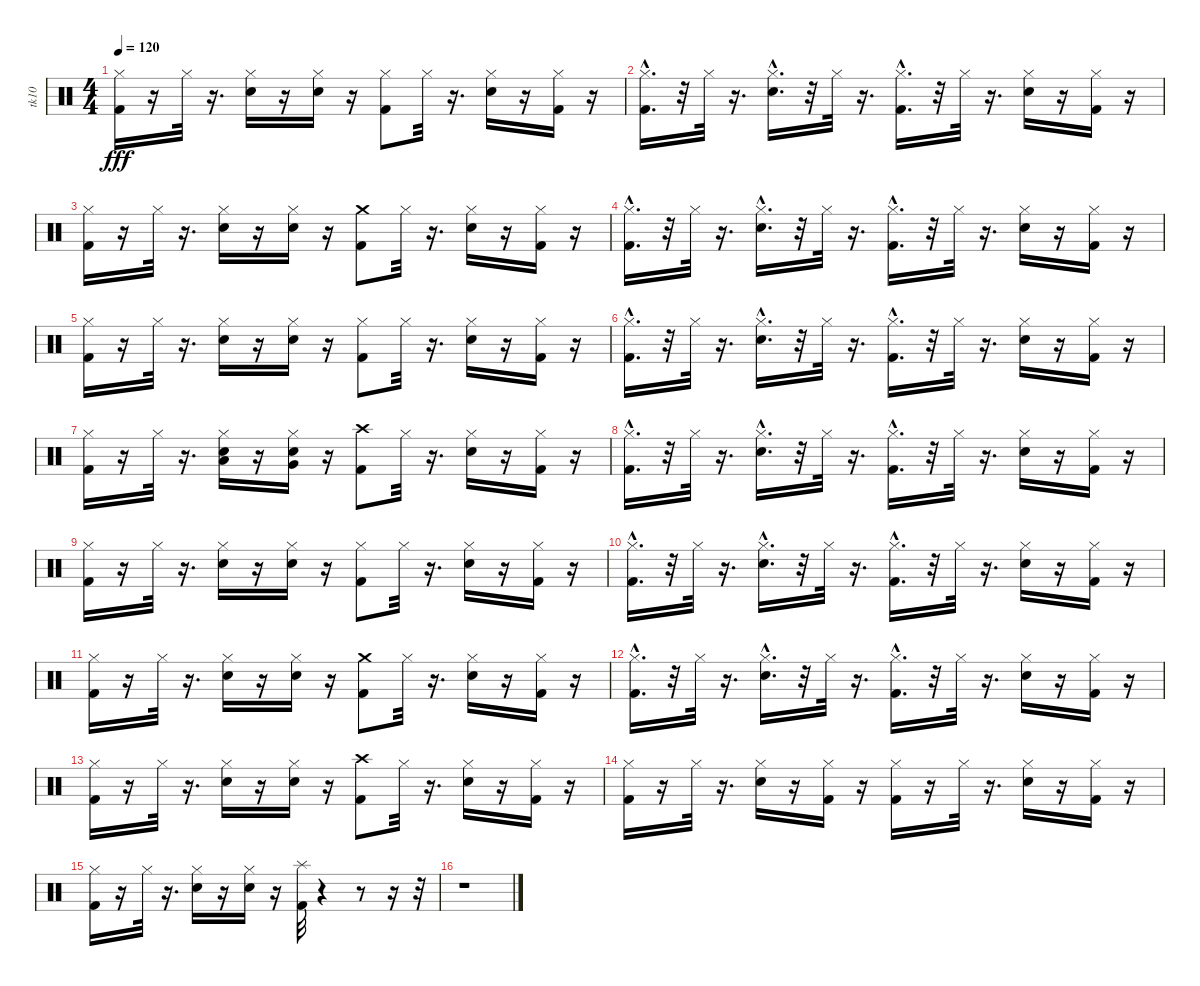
\track ("tk10" "tk10") {instrument percussion}
\staff {score}
\articulation defaults
\ts (4 4)
\tempo 120
\clef neutral
\ks c
("Kick (hit) 2" "Hi-Hat (closed)").16{dy fff} r.16 "Hi-Hat (closed)".32 r.16{d} ("Hi-Hat (closed)" "Snare (hit) 2").16 r.16 ("Hi-Hat (closed)" "Snare (hit) 2").16 r.16 ("Hi-Hat (closed)" "Kick (hit) 2").8 "Hi-Hat (closed)".32 r.16{d} ("Snare (hit) 2" "Hi-Hat (closed)").16 r.16 ("Hi-Hat (closed)" "Kick (hit) 2").16 r.16 |
("Hi-Hat (closed)" "Kick (hit) 2"{hac}).16{d} r.32 "Hi-Hat (closed)".32 r.16{d} ("Snare (hit) 2"{hac} "Hi-Hat (closed)").16{d} r.32 "Hi-Hat (closed)".32 r.16{d} ("Hi-Hat (closed)" "Kick (hit) 2"{hac}).16{d} r.32 "Hi-Hat (closed)".32 r.16{d} ("Snare (hit) 2" "Hi-Hat (closed)").16 r.16 ("Kick (hit) 2" "Hi-Hat (closed)").16 r.16 |
("Hi-Hat (closed)" "Kick (hit) 2").16 r.16 "Hi-Hat (closed)".32 r.16{d} ("Hi-Hat (closed)" "Snare (hit) 2").16 r.16 ("Hi-Hat (closed)" "Snare (hit) 2").16 r.16 ("Crash medium (hit)" "Kick (hit) 2").8 "Hi-Hat (closed)".32 r.16{d} ("Snare (hit) 2" "Hi-Hat (closed)").16 r.16 ("Hi-Hat (closed)" "Kick (hit) 2").16 r.16 |
("Hi-Hat (closed)" "Kick (hit) 2"{hac}).16{d} r.32 "Hi-Hat (closed)".32 r.16{d} ("Hi-Hat (closed)" "Snare (hit) 2"{hac}).16{d} r.32 "Hi-Hat (closed)".32 r.16{d} ("Kick (hit) 2"{hac} "Hi-Hat (closed)").16{d} r.32 "Hi-Hat (closed)".32 r.16{d} ("Hi-Hat (closed)" "Snare (hit) 2").16 r.16 ("Hi-Hat (closed)" "Kick (hit) 2").16 r.16 |
("Hi-Hat (closed)" "Kick (hit) 2").16 r.16 "Hi-Hat (closed)".32 r.16{d} ("Snare (hit) 2" "Hi-Hat (closed)").16 r.16 ("Snare (hit) 2" "Hi-Hat (closed)").16 r.16 ("Kick (hit) 2" "Hi-Hat (closed)").8 "Hi-Hat (closed)".32 r.16{d} ("Snare (hit) 2" "Hi-Hat (closed)").16 r.16 ("Kick (hit) 2" "Hi-Hat (closed)").16 r.16 |
("Hi-Hat (closed)" "Kick (hit) 2"{hac}).16{d} r.32 "Hi-Hat (closed)".32 r.16{d} ("Hi-Hat (closed)" "Snare (hit) 2"{hac}).16{d} r.32 "Hi-Hat (closed)".32 r.16{d} ("Hi-Hat (closed)" "Kick (hit) 2"{hac}).16{d} r.32 "Hi-Hat (closed)".32 r.16{d} ("Snare (hit) 2" "Hi-Hat (closed)").16 r.16 ("Kick (hit) 2" "Hi-Hat (closed)").16 r.16 |
("Kick (hit) 2" "Hi-Hat (closed)").16 r.16 "Hi-Hat (closed)".32 r.16{d} ("Hi-Hat (closed)" "Snare (hit) 2" "Low Tom (hit)").16 r.16 ("Very Low Tom (hit)" "Hi-Hat (closed)" "Snare (hit) 2").16 r.16 ("Crash high (hit)" "Kick (hit) 2").8 "Hi-Hat (closed)".32 r.16{d} ("Hi-Hat (closed)" "Snare (hit) 2").16 r.16 ("Kick (hit) 2" "Hi-Hat (closed)").16 r.16 |
("Hi-Hat (closed)" "Kick (hit) 2"{hac}).16{d} r.32 "Hi-Hat (closed)".32 r.16{d} ("Snare (hit) 2"{hac} "Hi-Hat (closed)").16{d} r.32 "Hi-Hat (closed)".32 r.16{d} ("Hi-Hat (closed)" "Kick (hit) 2"{hac}).16{d} r.32 "Hi-Hat (closed)".32 r.16{d} ("Snare (hit) 2" "Hi-Hat (closed)").16 r.16 ("Kick (hit) 2" "Hi-Hat (closed)").16 r.16 |
("Kick (hit) 2" "Hi-Hat (closed)").16 r.16 "Hi-Hat (closed)".32 r.16{d} ("Snare (hit) 2" "Hi-Hat (closed)").16 r.16 ("Snare (hit) 2" "Hi-Hat (closed)").16 r.16 ("Hi-Hat (closed)" "Kick (hit) 2").8 "Hi-Hat (closed)".32 r.16{d} ("Hi-Hat (closed)" "Snare (hit) 2").16 r.16 ("Kick (hit) 2" "Hi-Hat (closed)").16 r.16 |
("Hi-Hat (closed)" "Kick (hit) 2"{hac}).16{d} r.32 "Hi-Hat (closed)".32 r.16{d} ("Hi-Hat (closed)" "Snare (hit) 2"{hac}).16{d} r.32 "Hi-Hat (closed)".32 r.16{d} ("Hi-Hat (closed)" "Kick (hit) 2"{hac}).16{d} r.32 "Hi-Hat (closed)".32 r.16{d} ("Hi-Hat (closed)" "Snare (hit) 2").16 r.16 ("Hi-Hat (closed)" "Kick (hit) 2").16 r.16 |
("Kick (hit) 2" "Hi-Hat (closed)").16 r.16 "Hi-Hat (closed)".32 r.16{d} ("Snare (hit) 2" "Hi-Hat (closed)").16 r.16 ("Hi-Hat (closed)" "Snare (hit) 2").16 r.16 ("Kick (hit) 2" "Crash medium (hit)").8 "Hi-Hat (closed)".32 r.16{d} ("Hi-Hat (closed)" "Snare (hit) 2").16 r.16 ("Kick (hit) 2" "Hi-Hat (closed)").16 r.16 |
("Hi-Hat (closed)" "Kick (hit) 2"{hac}).16{d} r.32 "Hi-Hat (closed)".32 r.16{d} ("Hi-Hat (closed)" "Snare (hit) 2"{hac}).16{d} r.32 "Hi-Hat (closed)".32 r.16{d} ("Hi-Hat (closed)" "Kick (hit) 2"{hac}).16{d} r.32 "Hi-Hat (closed)".32 r.16{d} ("Hi-Hat (closed)" "Snare (hit) 2").16 r.16 ("Kick (hit) 2" "Hi-Hat (closed)").16 r.16 |
("Kick (hit) 2" "Hi-Hat (closed)").16 r.16 "Hi-Hat (closed)".32 r.16{d} ("Snare (hit) 2" "Hi-Hat (closed)").16 r.16 ("Snare (hit) 2" "Hi-Hat (closed)").16 r.16 ("Kick (hit) 2" "Crash high (hit)").8 "Hi-Hat (closed)".32 r.16{d} ("Snare (hit) 2" "Hi-Hat (closed)").16 r.16 ("Kick (hit) 2" "Hi-Hat (closed)").16 r.16 |
("Hi-Hat (closed)" "Kick (hit) 2").16 r.16 "Hi-Hat (closed)".32 r.16{d} ("Snare (hit) 2" "Hi-Hat (closed)").16 r.16 ("Kick (hit) 2" "Hi-Hat (closed)").16 r.16 ("Kick (hit) 2" "Hi-Hat (closed)").16 r.16 "Hi-Hat (closed)".32 r.16{d} ("Hi-Hat (closed)" "Snare (hit) 2").16 r.16 ("Hi-Hat (closed)" "Kick (hit) 2").16 r.16 |
("Hi-Hat (closed)" "Kick (hit) 2").16 r.16 "Hi-Hat (closed)".32 r.16{d} ("Hi-Hat (closed)" "Snare (hit) 2").16 r.16 ("Snare (hit) 2" "Hi-Hat (closed)").16 r.16 ("Splash (hit)" "Kick (hit) 2").32 r.4 r.8 r.16 r.32 |
r.1
